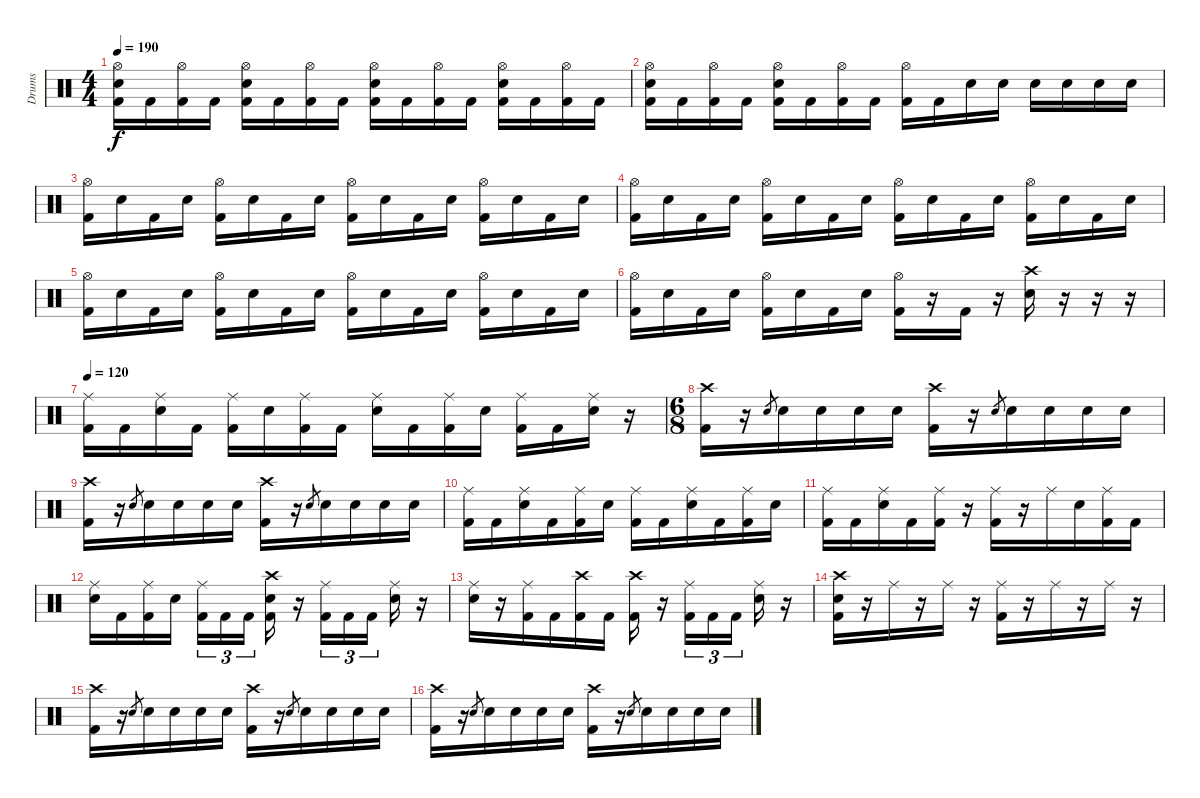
\track ("Drums" "Drums") {instrument percussion}
\staff {score}
\articulation defaults
\ts (4 4)
\tempo 190
\clef neutral
\ks aminor
("Kick (hit) 2" "Electric Snare (hit)" "Hi-Hat (open)").16{dy f} "Kick (hit) 2".16 ("Kick (hit) 2" "Hi-Hat (open)").16 "Kick (hit) 2".16 ("Kick (hit) 2" "Electric Snare (hit)" "Hi-Hat (open)").16 "Kick (hit) 2".16 ("Kick (hit) 2" "Hi-Hat (open)").16 "Kick (hit) 2".16 ("Kick (hit) 2" "Electric Snare (hit)" "Hi-Hat (open)").16 "Kick (hit) 2".16 ("Kick (hit) 2" "Hi-Hat (open)").16 "Kick (hit) 2".16 ("Kick (hit) 2" "Electric Snare (hit)" "Hi-Hat (open)").16 "Kick (hit) 2".16 ("Kick (hit) 2" "Hi-Hat (open)").16 "Kick (hit) 2".16 |
("Kick (hit) 2" "Electric Snare (hit)" "Hi-Hat (open)").16 "Kick (hit) 2".16 ("Kick (hit) 2" "Hi-Hat (open)").16 "Kick (hit) 2".16 ("Kick (hit) 2" "Electric Snare (hit)" "Hi-Hat (open)").16 "Kick (hit) 2".16 ("Kick (hit) 2" "Hi-Hat (open)").16 "Kick (hit) 2".16 ("Kick (hit) 2" "Hi-Hat (open)").16 "Kick (hit) 2".16 "Electric Snare (hit)".16 "Electric Snare (hit)".16 "Electric Snare (hit)".16 "Electric Snare (hit)".16 "Electric Snare (hit)".16 "Electric Snare (hit)".16 |
("Kick (hit) 2" "Hi-Hat (open)").16 "Electric Snare (hit)".16 "Kick (hit) 2".16 "Electric Snare (hit)".16 ("Kick (hit) 2" "Hi-Hat (open)").16 "Electric Snare (hit)".16 "Kick (hit) 2".16 "Electric Snare (hit)".16 ("Kick (hit) 2" "Hi-Hat (open)").16 "Electric Snare (hit)".16 "Kick (hit) 2".16 "Electric Snare (hit)".16 ("Kick (hit) 2" "Hi-Hat (open)").16 "Electric Snare (hit)".16 "Kick (hit) 2".16 "Electric Snare (hit)".16 |
("Kick (hit) 2" "Hi-Hat (open)").16 "Electric Snare (hit)".16 "Kick (hit) 2".16 "Electric Snare (hit)".16 ("Kick (hit) 2" "Hi-Hat (open)").16 "Electric Snare (hit)".16 "Kick (hit) 2".16 "Electric Snare (hit)".16 ("Kick (hit) 2" "Hi-Hat (open)").16 "Electric Snare (hit)".16 "Kick (hit) 2".16 "Electric Snare (hit)".16 ("Kick (hit) 2" "Hi-Hat (open)").16 "Electric Snare (hit)".16 "Kick (hit) 2".16 "Electric Snare (hit)".16 |
("Kick (hit) 2" "Hi-Hat (open)").16 "Electric Snare (hit)".16 "Kick (hit) 2".16 "Electric Snare (hit)".16 ("Kick (hit) 2" "Hi-Hat (open)").16 "Electric Snare (hit)".16 "Kick (hit) 2".16 "Electric Snare (hit)".16 ("Kick (hit) 2" "Hi-Hat (open)").16 "Electric Snare (hit)".16 "Kick (hit) 2".16 "Electric Snare (hit)".16 ("Kick (hit) 2" "Hi-Hat (open)").16 "Electric Snare (hit)".16 "Kick (hit) 2".16 "Electric Snare (hit)".16 |
("Kick (hit) 2" "Hi-Hat (open)").16 "Electric Snare (hit)".16 "Kick (hit) 2".16 "Electric Snare (hit)".16 ("Kick (hit) 2" "Hi-Hat (open)").16 "Electric Snare (hit)".16 "Kick (hit) 2".16 "Electric Snare (hit)".16 ("Kick (hit) 2" "Hi-Hat (open)").16 r.16 "Kick (hit) 2".16 r.16 ("Electric Snare (hit)" "Crash high (hit)").16 r.16 r.16 r.16 |
\tempo 120
("Kick (hit) 2" "Ride (middle)").16 "Kick (hit) 2".16 ("Electric Snare (hit)" "Ride (middle)").16 "Kick (hit) 2".16 ("Kick (hit) 2" "Ride (middle)").16 "Electric Snare (hit)".16 ("Kick (hit) 2" "Ride (middle)").16 "Kick (hit) 2".16 ("Electric Snare (hit)" "Ride (middle)").16 "Kick (hit) 2".16 ("Kick (hit) 2" "Ride (middle)").16 "Electric Snare (hit)".16 ("Kick (hit) 2" "Ride (middle)").16 "Kick (hit) 2".16 ("Electric Snare (hit)" "Ride (middle)").16 r.16 |
\ts (6 8)
("Kick (hit) 2" "Crash high (hit)").16 r.16 "Electric Snare (hit)".8{gr} "Electric Snare (hit)".16 "Electric Snare (hit)".16 "Electric Snare (hit)".16 "Electric Snare (hit)".16 ("Kick (hit) 2" "Crash high (hit)").16 r.16 "Electric Snare (hit)".8{gr} "Electric Snare (hit)".16 "Electric Snare (hit)".16 "Electric Snare (hit)".16 "Electric Snare (hit)".16 |
("Kick (hit) 2" "Crash high (hit)").16 r.16 "Electric Snare (hit)".8{gr} "Electric Snare (hit)".16 "Electric Snare (hit)".16 "Electric Snare (hit)".16 "Electric Snare (hit)".16 ("Kick (hit) 2" "Crash high (hit)").16 r.16 "Electric Snare (hit)".8{gr} "Electric Snare (hit)".16 "Electric Snare (hit)".16 "Electric Snare (hit)".16 "Electric Snare (hit)".16 |
("Kick (hit) 2" "Ride (middle)").16 "Kick (hit) 2".16 ("Electric Snare (hit)" "Ride (middle)").16 "Kick (hit) 2".16 ("Kick (hit) 2" "Ride (middle)").16 "Electric Snare (hit)".16 ("Kick (hit) 2" "Ride (middle)").16 "Kick (hit) 2".16 ("Electric Snare (hit)" "Ride (middle)").16 "Kick (hit) 2".16 ("Kick (hit) 2" "Ride (middle)").16 "Electric Snare (hit)".16 |
("Kick (hit) 2" "Ride (middle)").16 "Kick (hit) 2".16 ("Electric Snare (hit)" "Ride (middle)").16 "Kick (hit) 2".16 ("Kick (hit) 2" "Ride (middle)").16 r.16 ("Kick (hit) 2" "Ride (middle)").16 r.16 "Ride (middle)".16 "Electric Snare (hit)".16 ("Kick (hit) 2" "Ride (middle)").16 "Kick (hit) 2".16 |
("Electric Snare (hit)" "Ride (middle)").16 "Kick (hit) 2".16 ("Kick (hit) 2" "Ride (middle)").16 "Electric Snare (hit)".16{beam splitsecondary} ("Kick (hit) 2" "Ride (middle)").16{tu (3 2)} "Kick (hit) 2".16{tu (3 2)} "Kick (hit) 2".16{tu (3 2)} ("Kick (hit) 2" "Electric Snare (hit)" "Crash high (hit)").16 r.16 ("Kick (hit) 2" "Ride (middle)").16{tu (3 2)} "Kick (hit) 2".16{tu (3 2)} "Kick (hit) 2".16{tu (3 2) beam splitsecondary} ("Electric Snare (hit)" "Ride (middle)").16 r.16 |
("Electric Snare (hit)" "Ride (middle)").16 r.16 ("Kick (hit) 2" "Ride (middle)").16 "Kick (hit) 2".16 ("Kick (hit) 2" "Crash high (hit)").16 "Kick (hit) 2".16 ("Kick (hit) 2" "Crash high (hit)").16 r.16 ("Kick (hit) 2" "Ride (middle)").16{tu (3 2)} "Kick (hit) 2".16{tu (3 2)} "Kick (hit) 2".16{tu (3 2) beam splitsecondary} ("Electric Snare (hit)" "Ride (middle)").16 r.16 |
("Kick (hit) 2" "Electric Snare (hit)" "Crash high (hit)").16 r.16 "Ride (middle)".16 r.16 "Ride (middle)".16 r.16 ("Kick (hit) 2" "Ride (middle)").16 r.16 "Ride (middle)".16 r.16 "Ride (middle)".16 r.16 |
("Kick (hit) 2" "Crash high (hit)").16 r.16 "Electric Snare (hit)".8{gr} "Electric Snare (hit)".16 "Electric Snare (hit)".16 "Electric Snare (hit)".16 "Electric Snare (hit)".16 ("Kick (hit) 2" "Crash high (hit)").16 r.16 "Electric Snare (hit)".8{gr} "Electric Snare (hit)".16 "Electric Snare (hit)".16 "Electric Snare (hit)".16 "Electric Snare (hit)".16 |
("Kick (hit) 2" "Crash high (hit)").16 r.16 "Electric Snare (hit)".8{gr} "Electric Snare (hit)".16 "Electric Snare (hit)".16 "Electric Snare (hit)".16 "Electric Snare (hit)".16 ("Kick (hit) 2" "Crash high (hit)").16 r.16 "Electric Snare (hit)".8{gr} "Electric Snare (hit)".16 "Electric Snare (hit)".16 "Electric Snare (hit)".16 "Electric Snare (hit)".16
